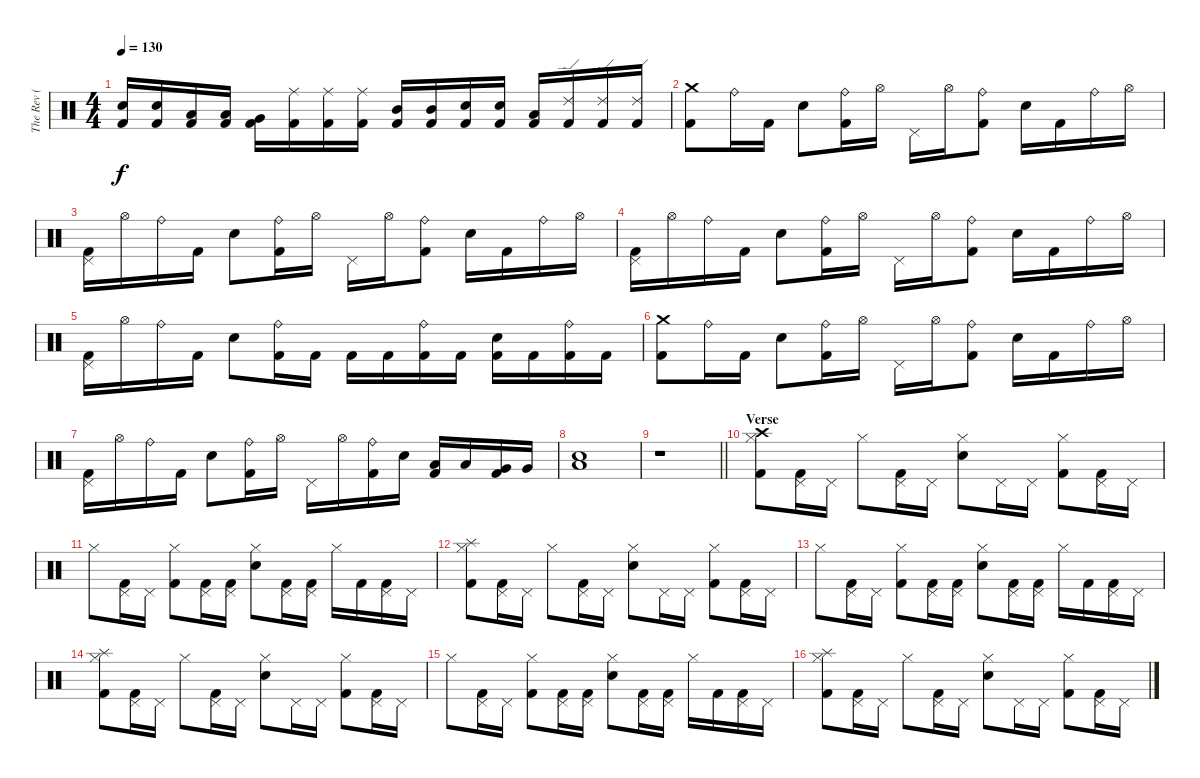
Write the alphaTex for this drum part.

\track ("The Rev ( Drums )" "The Rev ( ") {instrument percussion}
\staff {score}
\articulation defaults
\ts (4 4)
\tempo 130
\clef neutral
\ks c
("Snare (hit) 2" "Kick (hit) 2").16{dy f} ("Snare (hit) 2" "Kick (hit) 2").16 ("Low Tom (hit)" "Kick (hit) 2").16 ("Low Tom (hit)" "Kick (hit) 2").16 ("Very Low Tom (hit)" "Kick (hit) 2").16 ("Ride (middle)" "Kick (hit) 2").16 ("Ride (middle)" "Kick (hit) 2").16 ("Ride (middle)" "Kick (hit) 2").16 ("Mid Tom (hit)" "Kick (hit) 2").16 ("Mid Tom (hit)" "Kick (hit) 2").16 ("Snare (hit) 2" "Kick (hit) 2").16 ("Snare (hit) 2" "Kick (hit) 2").16 ("Low Tom (hit)" "Kick (hit) 2").16 ("Ride (edge) 2" "Kick (hit) 2").16 ("Ride (edge) 2" "Kick (hit) 2").16 ("Ride (edge) 2" "Kick (hit) 2").16 |
("Crash medium (hit)" "Kick (hit) 2").8 "Ride (bell)".16 "Kick (hit) 2".16 "Snare (hit) 2".8 ("Ride (bell)" "Kick (hit) 2").16 "Hi-Hat (open)".16 "Pedal Hi-Hat (hit)".16 "Hi-Hat (open)".16 ("Ride (bell)" "Kick (hit) 2").8 "Snare (hit) 2".16 "Kick (hit) 2".16 "Ride (bell)".16 "Hi-Hat (open)".16 |
("Pedal Hi-Hat (hit)" "Kick (hit) 2").16 "Hi-Hat (open)".16 "Ride (bell)".16 "Kick (hit) 2".16 "Snare (hit) 2".8 ("Ride (bell)" "Kick (hit) 2").16 "Hi-Hat (open)".16 "Pedal Hi-Hat (hit)".16 "Hi-Hat (open)".16 ("Ride (bell)" "Kick (hit) 2").8 "Snare (hit) 2".16 "Kick (hit) 2".16 "Ride (bell)".16 "Hi-Hat (open)".16 |
("Pedal Hi-Hat (hit)" "Kick (hit) 2").16 "Hi-Hat (open)".16 "Ride (bell)".16 "Kick (hit) 2".16 "Snare (hit) 2".8 ("Ride (bell)" "Kick (hit) 2").16 "Hi-Hat (open)".16 "Pedal Hi-Hat (hit)".16 "Hi-Hat (open)".16 ("Ride (bell)" "Kick (hit) 2").8 "Snare (hit) 2".16 "Kick (hit) 2".16 "Ride (bell)".16 "Hi-Hat (open)".16 |
("Pedal Hi-Hat (hit)" "Kick (hit) 2").16 "Hi-Hat (open)".16 "Ride (bell)".16 "Kick (hit) 2".16 "Snare (hit) 2".8 ("Ride (bell)" "Kick (hit) 2").16 "Kick (hit) 2".16 "Kick (hit) 2".16 "Kick (hit) 2".16 ("Ride (bell)" "Kick (hit) 2").16 "Kick (hit) 2".16 ("Snare (hit) 2" "Kick (hit) 2").16 "Kick (hit) 2".16 ("Ride (bell)" "Kick (hit) 2").16 "Kick (hit) 2".16 |
("Crash medium (hit)" "Kick (hit) 2").8 "Ride (bell)".16 "Kick (hit) 2".16 "Snare (hit) 2".8 ("Ride (bell)" "Kick (hit) 2").16 "Hi-Hat (open)".16 "Pedal Hi-Hat (hit)".16 "Hi-Hat (open)".16 ("Ride (bell)" "Kick (hit) 2").8 "Snare (hit) 2".16 "Kick (hit) 2".16 "Ride (bell)".16 "Hi-Hat (open)".16 |
("Pedal Hi-Hat (hit)" "Kick (hit) 2").16 "Hi-Hat (open)".16 "Ride (bell)".16 "Kick (hit) 2".16 "Snare (hit) 2".8 ("Ride (bell)" "Kick (hit) 2").16 "Hi-Hat (open)".16 "Pedal Hi-Hat (hit)".16 "Hi-Hat (open)".16 ("Ride (bell)" "Kick (hit) 2").16 "Snare (hit) 2".16 ("Low Tom (hit)" "Kick (hit) 2").16 "Low Tom (hit)".16 ("Very Low Tom (hit)" "Kick (hit) 2").16 "Very Low Tom (hit)".16 |
("Low Floor Tom (hit)" "Snare (hit) 2").1 |
\barLineRight lightlight
r.1 |
\section ("" "Verse")
("Crash high (hit)" "Hi-Hat (closed)" "Kick (hit) 2").8 ("Pedal Hi-Hat (hit)" "Kick (hit) 2").16 "Pedal Hi-Hat (hit)".16 "Hi-Hat (closed)".8 ("Pedal Hi-Hat (hit)" "Kick (hit) 2").16 "Pedal Hi-Hat (hit)".16 ("Hi-Hat (closed)" "Snare (hit) 2").8 "Pedal Hi-Hat (hit)".16 "Pedal Hi-Hat (hit)".16 ("Hi-Hat (closed)" "Kick (hit) 2").8 ("Pedal Hi-Hat (hit)" "Kick (hit) 2").16 "Pedal Hi-Hat (hit)".16 |
"Hi-Hat (closed)".8 ("Pedal Hi-Hat (hit)" "Kick (hit) 2").16 "Pedal Hi-Hat (hit)".16 ("Hi-Hat (closed)" "Kick (hit) 2").8 ("Pedal Hi-Hat (hit)" "Kick (hit) 2").16 ("Pedal Hi-Hat (hit)" "Kick (hit) 2").16 ("Hi-Hat (closed)" "Snare (hit) 2").8 ("Pedal Hi-Hat (hit)" "Kick (hit) 2").16 ("Pedal Hi-Hat (hit)" "Kick (hit) 2").16 "Hi-Hat (closed)".16 "Kick (hit) 2".16 ("Pedal Hi-Hat (hit)" "Kick (hit) 2").16 "Pedal Hi-Hat (hit)".16 |
("Splash (hit)" "Hi-Hat (closed)" "Kick (hit) 2").8 ("Pedal Hi-Hat (hit)" "Kick (hit) 2").16 "Pedal Hi-Hat (hit)".16 "Hi-Hat (closed)".8 ("Pedal Hi-Hat (hit)" "Kick (hit) 2").16 "Pedal Hi-Hat (hit)".16 ("Hi-Hat (closed)" "Snare (hit) 2").8 "Pedal Hi-Hat (hit)".16 "Pedal Hi-Hat (hit)".16 ("Hi-Hat (closed)" "Kick (hit) 2").8 ("Pedal Hi-Hat (hit)" "Kick (hit) 2").16 "Pedal Hi-Hat (hit)".16 |
"Hi-Hat (closed)".8 ("Pedal Hi-Hat (hit)" "Kick (hit) 2").16 "Pedal Hi-Hat (hit)".16 ("Hi-Hat (closed)" "Kick (hit) 2").8 ("Pedal Hi-Hat (hit)" "Kick (hit) 2").16 ("Pedal Hi-Hat (hit)" "Kick (hit) 2").16 ("Hi-Hat (closed)" "Snare (hit) 2").8 ("Pedal Hi-Hat (hit)" "Kick (hit) 2").16 ("Pedal Hi-Hat (hit)" "Kick (hit) 2").16 "Hi-Hat (closed)".16 "Kick (hit) 2".16 ("Pedal Hi-Hat (hit)" "Kick (hit) 2").16 "Pedal Hi-Hat (hit)".16 |
("Splash (hit)" "Hi-Hat (closed)" "Kick (hit) 2").8 ("Pedal Hi-Hat (hit)" "Kick (hit) 2").16 "Pedal Hi-Hat (hit)".16 "Hi-Hat (closed)".8 ("Pedal Hi-Hat (hit)" "Kick (hit) 2").16 "Pedal Hi-Hat (hit)".16 ("Hi-Hat (closed)" "Snare (hit) 2").8 "Pedal Hi-Hat (hit)".16 "Pedal Hi-Hat (hit)".16 ("Hi-Hat (closed)" "Kick (hit) 2").8 ("Pedal Hi-Hat (hit)" "Kick (hit) 2").16 "Pedal Hi-Hat (hit)".16 |
"Hi-Hat (closed)".8 ("Pedal Hi-Hat (hit)" "Kick (hit) 2").16 "Pedal Hi-Hat (hit)".16 ("Hi-Hat (closed)" "Kick (hit) 2").8 ("Pedal Hi-Hat (hit)" "Kick (hit) 2").16 ("Pedal Hi-Hat (hit)" "Kick (hit) 2").16 ("Hi-Hat (closed)" "Snare (hit) 2").8 ("Pedal Hi-Hat (hit)" "Kick (hit) 2").16 ("Pedal Hi-Hat (hit)" "Kick (hit) 2").16 "Hi-Hat (closed)".16 "Kick (hit) 2".16 ("Pedal Hi-Hat (hit)" "Kick (hit) 2").16 "Pedal Hi-Hat (hit)".16 |
("Splash (hit)" "Hi-Hat (closed)" "Kick (hit) 2").8 ("Pedal Hi-Hat (hit)" "Kick (hit) 2").16 "Pedal Hi-Hat (hit)".16 "Hi-Hat (closed)".8 ("Pedal Hi-Hat (hit)" "Kick (hit) 2").16 "Pedal Hi-Hat (hit)".16 ("Hi-Hat (closed)" "Snare (hit) 2").8 "Pedal Hi-Hat (hit)".16 "Pedal Hi-Hat (hit)".16 ("Hi-Hat (closed)" "Kick (hit) 2").8 ("Pedal Hi-Hat (hit)" "Kick (hit) 2").16 "Pedal Hi-Hat (hit)".16
